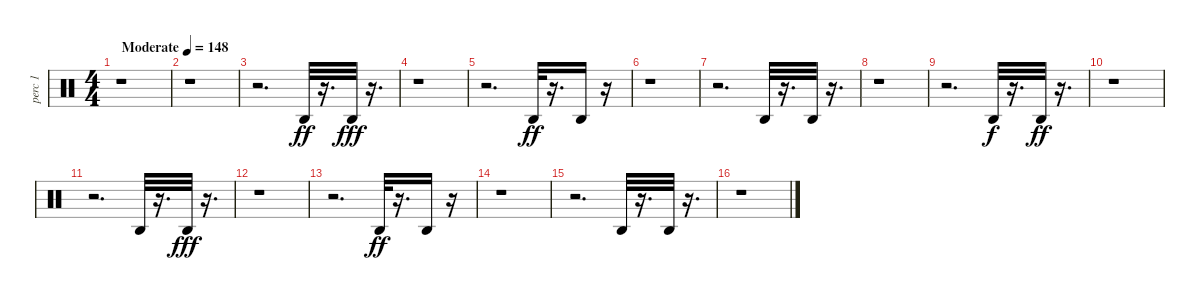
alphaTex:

\track ("perc 1              " "perc 1    ") {instrument percussion}
\staff {score}
\articulation defaults
\ts (4 4)
\tempo (148 "Moderate")
\clef neutral
\ks c
r.1{dy ff} |
r.1 |
r.2{d} "Agogo high (hit)".32 r.16{d} "Agogo high (hit)".32{dy fff} r.16{d} |
r.1 |
r.2{d} "Agogo high (hit)".32{dy ff} r.16{d} "Agogo high (hit)".16 r.16 |
r.1 |
r.2{d} "Agogo high (hit)".32 r.16{d} "Agogo high (hit)".32 r.16{d} |
r.1 |
r.2{d} "Agogo high (hit)".32{dy f} r.16{d} "Agogo high (hit)".32{dy ff} r.16{d} |
r.1 |
r.2{d} "Agogo high (hit)".32 r.16{d} "Agogo high (hit)".32{dy fff} r.16{d} |
r.1 |
r.2{d} "Agogo high (hit)".32{dy ff} r.16{d} "Agogo high (hit)".16 r.16 |
r.1 |
r.2{d} "Agogo high (hit)".32 r.16{d} "Agogo high (hit)".32 r.16{d} |
r.1
